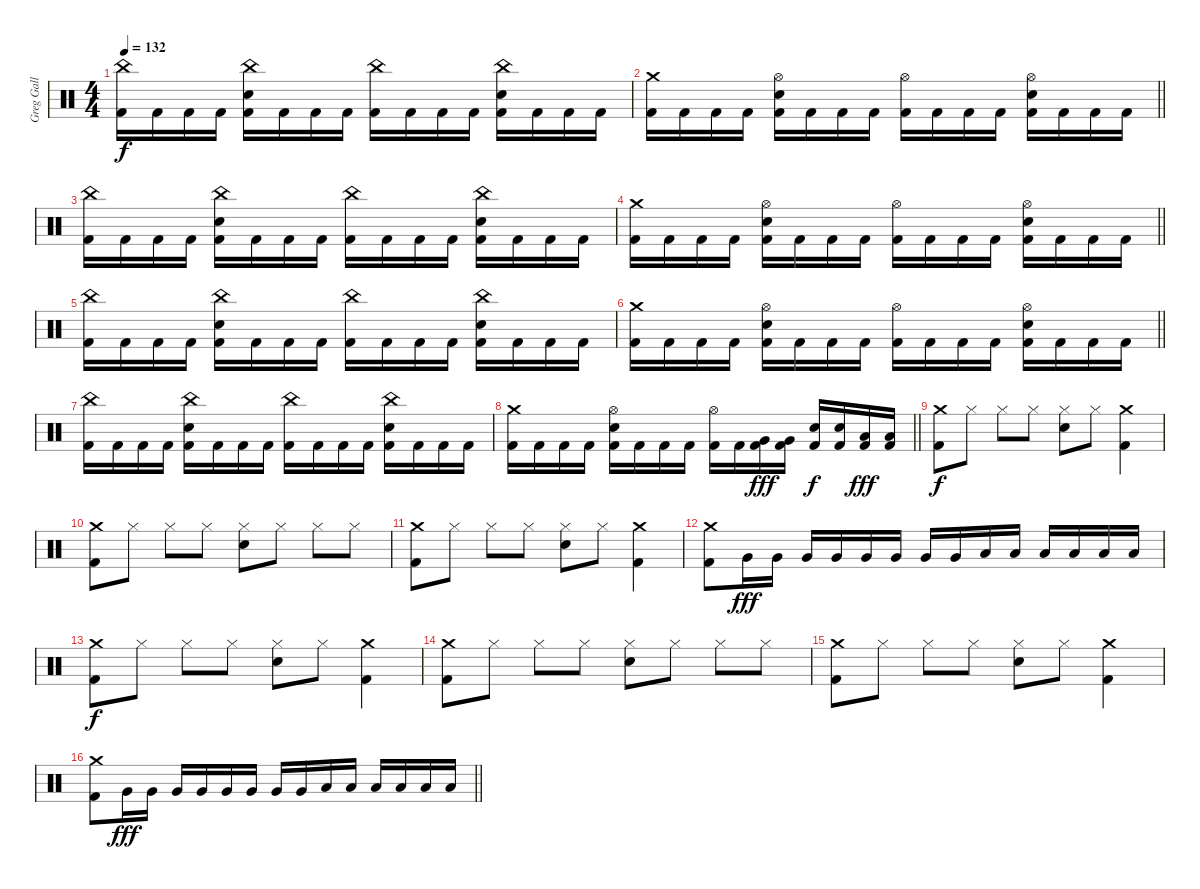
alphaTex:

\track ("Greg Gall" "Greg Gall") {instrument percussion}
\staff {score}
\articulation defaults
\ts (4 4)
\tempo 132
\clef neutral
\ks c
("China (hit)" "Kick (hit) 2").16{dy f} "Kick (hit) 2".16 "Kick (hit) 2".16 "Kick (hit) 2".16 ("China (hit)" "Electric Snare (hit)" "Kick (hit) 2").16 "Kick (hit) 2".16 "Kick (hit) 2".16 "Kick (hit) 2".16 ("China (hit)" "Kick (hit) 2").16 "Kick (hit) 2".16 "Kick (hit) 2".16 "Kick (hit) 2".16 ("China (hit)" "Electric Snare (hit)" "Kick (hit) 2").16 "Kick (hit) 2".16 "Kick (hit) 2".16 "Kick (hit) 2".16 |
\barLineRight lightlight
("Crash medium (hit)" "Kick (hit) 2").16 "Kick (hit) 2".16 "Kick (hit) 2".16 "Kick (hit) 2".16 ("Hi-Hat (open)" "Electric Snare (hit)" "Kick (hit) 2").16 "Kick (hit) 2".16 "Kick (hit) 2".16 "Kick (hit) 2".16 ("Hi-Hat (open)" "Kick (hit) 2").16 "Kick (hit) 2".16 "Kick (hit) 2".16 "Kick (hit) 2".16 ("Hi-Hat (open)" "Electric Snare (hit)" "Kick (hit) 2").16 "Kick (hit) 2".16 "Kick (hit) 2".16 "Kick (hit) 2".16 |
("China (hit)" "Kick (hit) 2").16 "Kick (hit) 2".16 "Kick (hit) 2".16 "Kick (hit) 2".16 ("China (hit)" "Electric Snare (hit)" "Kick (hit) 2").16 "Kick (hit) 2".16 "Kick (hit) 2".16 "Kick (hit) 2".16 ("China (hit)" "Kick (hit) 2").16 "Kick (hit) 2".16 "Kick (hit) 2".16 "Kick (hit) 2".16 ("China (hit)" "Electric Snare (hit)" "Kick (hit) 2").16 "Kick (hit) 2".16 "Kick (hit) 2".16 "Kick (hit) 2".16 |
\barLineRight lightlight
("Crash medium (hit)" "Kick (hit) 2").16 "Kick (hit) 2".16 "Kick (hit) 2".16 "Kick (hit) 2".16 ("Hi-Hat (open)" "Electric Snare (hit)" "Kick (hit) 2").16 "Kick (hit) 2".16 "Kick (hit) 2".16 "Kick (hit) 2".16 ("Hi-Hat (open)" "Kick (hit) 2").16 "Kick (hit) 2".16 "Kick (hit) 2".16 "Kick (hit) 2".16 ("Hi-Hat (open)" "Electric Snare (hit)" "Kick (hit) 2").16 "Kick (hit) 2".16 "Kick (hit) 2".16 "Kick (hit) 2".16 |
("China (hit)" "Kick (hit) 2").16 "Kick (hit) 2".16 "Kick (hit) 2".16 "Kick (hit) 2".16 ("China (hit)" "Electric Snare (hit)" "Kick (hit) 2").16 "Kick (hit) 2".16 "Kick (hit) 2".16 "Kick (hit) 2".16 ("China (hit)" "Kick (hit) 2").16 "Kick (hit) 2".16 "Kick (hit) 2".16 "Kick (hit) 2".16 ("China (hit)" "Electric Snare (hit)" "Kick (hit) 2").16 "Kick (hit) 2".16 "Kick (hit) 2".16 "Kick (hit) 2".16 |
\barLineRight lightlight
("Crash medium (hit)" "Kick (hit) 2").16 "Kick (hit) 2".16 "Kick (hit) 2".16 "Kick (hit) 2".16 ("Hi-Hat (open)" "Electric Snare (hit)" "Kick (hit) 2").16 "Kick (hit) 2".16 "Kick (hit) 2".16 "Kick (hit) 2".16 ("Hi-Hat (open)" "Kick (hit) 2").16 "Kick (hit) 2".16 "Kick (hit) 2".16 "Kick (hit) 2".16 ("Hi-Hat (open)" "Electric Snare (hit)" "Kick (hit) 2").16 "Kick (hit) 2".16 "Kick (hit) 2".16 "Kick (hit) 2".16 |
("China (hit)" "Kick (hit) 2").16 "Kick (hit) 2".16 "Kick (hit) 2".16 "Kick (hit) 2".16 ("China (hit)" "Electric Snare (hit)" "Kick (hit) 2").16 "Kick (hit) 2".16 "Kick (hit) 2".16 "Kick (hit) 2".16 ("China (hit)" "Kick (hit) 2").16 "Kick (hit) 2".16 "Kick (hit) 2".16 "Kick (hit) 2".16 ("China (hit)" "Electric Snare (hit)" "Kick (hit) 2").16 "Kick (hit) 2".16 "Kick (hit) 2".16 "Kick (hit) 2".16 |
\barLineRight lightlight
("Crash medium (hit)" "Kick (hit) 2").16 "Kick (hit) 2".16 "Kick (hit) 2".16 "Kick (hit) 2".16 ("Hi-Hat (open)" "Electric Snare (hit)" "Kick (hit) 2").16 "Kick (hit) 2".16 "Kick (hit) 2".16 "Kick (hit) 2".16 ("Hi-Hat (open)" "Kick (hit) 2").16 "Kick (hit) 2".16 ("Very Low Tom (hit)" "Kick (hit) 2").16{dy fff} ("Very Low Tom (hit)" "Kick (hit) 2").16 ("Electric Snare (hit)" "Kick (hit) 2").16{dy f} ("Electric Snare (hit)" "Kick (hit) 2").16 ("Low Floor Tom (hit)" "Kick (hit) 2").16{dy fff} ("Low Floor Tom (hit)" "Kick (hit) 2").16 |
("Crash medium (hit)" "Kick (hit) 2").8{dy f} "Hi-Hat (closed)".8 "Hi-Hat (closed)".8 "Hi-Hat (closed)".8 ("Hi-Hat (closed)" "Electric Snare (hit)").8 "Hi-Hat (closed)".8 ("Crash medium (hit)" "Kick (hit) 2").4 |
("Crash medium (hit)" "Kick (hit) 2").8 "Hi-Hat (closed)".8 "Hi-Hat (closed)".8 "Hi-Hat (closed)".8 ("Hi-Hat (closed)" "Electric Snare (hit)").8 "Hi-Hat (closed)".8 "Hi-Hat (closed)".8 "Hi-Hat (closed)".8 |
("Crash medium (hit)" "Kick (hit) 2").8 "Hi-Hat (closed)".8 "Hi-Hat (closed)".8 "Hi-Hat (closed)".8 ("Hi-Hat (closed)" "Electric Snare (hit)").8 "Hi-Hat (closed)".8 ("Crash medium (hit)" "Kick (hit) 2").4 |
("Crash medium (hit)" "Kick (hit) 2").8 "Very Low Tom (hit)".16{dy fff} "Very Low Tom (hit)".16 "Very Low Tom (hit)".16 "Very Low Tom (hit)".16 "Very Low Tom (hit)".16 "Very Low Tom (hit)".16 "Very Low Tom (hit)".16 "Very Low Tom (hit)".16 "Low Floor Tom (hit)".16 "Low Floor Tom (hit)".16 "Low Floor Tom (hit)".16 "Low Floor Tom (hit)".16 "Low Floor Tom (hit)".16 "Low Floor Tom (hit)".16 |
("Crash medium (hit)" "Kick (hit) 2").8{dy f} "Hi-Hat (closed)".8 "Hi-Hat (closed)".8 "Hi-Hat (closed)".8 ("Hi-Hat (closed)" "Electric Snare (hit)").8 "Hi-Hat (closed)".8 ("Crash medium (hit)" "Kick (hit) 2").4 |
("Crash medium (hit)" "Kick (hit) 2").8 "Hi-Hat (closed)".8 "Hi-Hat (closed)".8 "Hi-Hat (closed)".8 ("Hi-Hat (closed)" "Electric Snare (hit)").8 "Hi-Hat (closed)".8 "Hi-Hat (closed)".8 "Hi-Hat (closed)".8 |
("Crash medium (hit)" "Kick (hit) 2").8 "Hi-Hat (closed)".8 "Hi-Hat (closed)".8 "Hi-Hat (closed)".8 ("Hi-Hat (closed)" "Electric Snare (hit)").8 "Hi-Hat (closed)".8 ("Crash medium (hit)" "Kick (hit) 2").4 |
\barLineRight lightlight
("Crash medium (hit)" "Kick (hit) 2").8 "Very Low Tom (hit)".16{dy fff} "Very Low Tom (hit)".16 "Very Low Tom (hit)".16 "Very Low Tom (hit)".16 "Very Low Tom (hit)".16 "Very Low Tom (hit)".16 "Very Low Tom (hit)".16 "Very Low Tom (hit)".16 "Low Floor Tom (hit)".16 "Low Floor Tom (hit)".16 "Low Floor Tom (hit)".16 "Low Floor Tom (hit)".16 "Low Floor Tom (hit)".16 "Low Floor Tom (hit)".16
